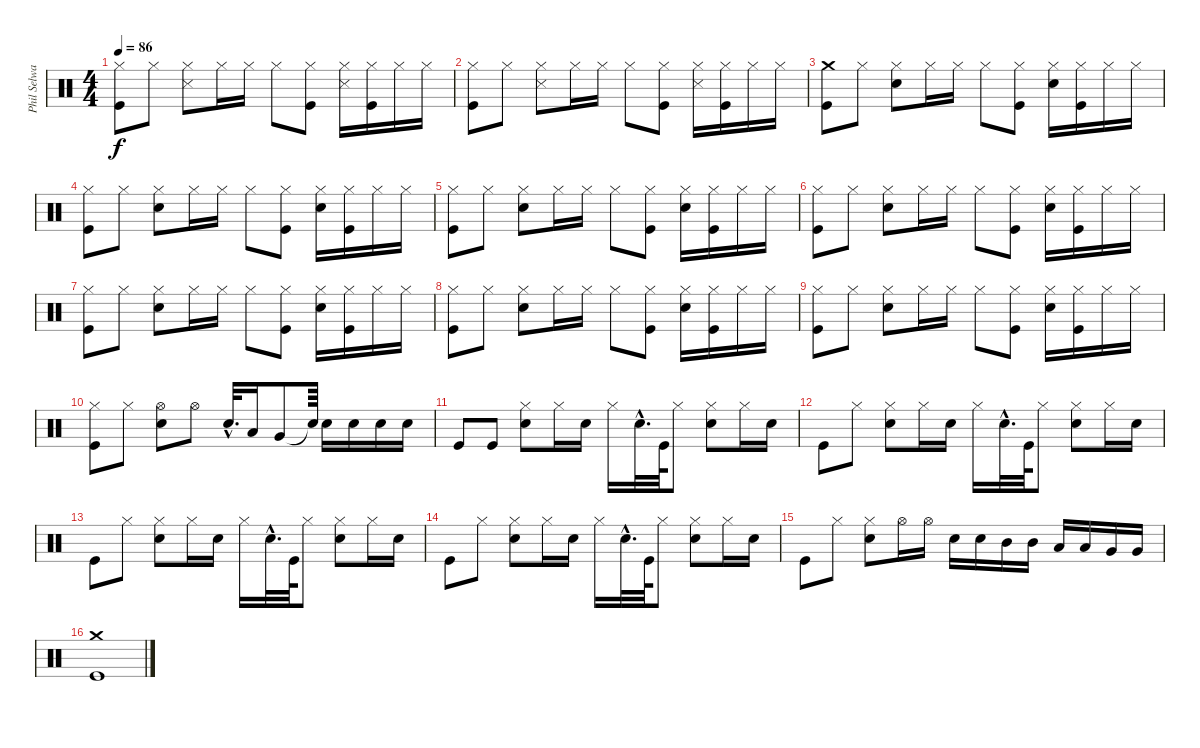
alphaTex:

\track ("Phil Selway" "Phil Selwa") {instrument percussion}
\staff {score}
\articulation defaults
\ts (4 4)
\tempo 86
\clef neutral
\ks c
("Kick (hit)" "Hi-Hat (closed)").8{dy f} "Hi-Hat (closed)".8 ("Hi-Hat (closed)" "Snare (side stick) 3").8 "Hi-Hat (closed)".16 "Hi-Hat (closed)".16 "Hi-Hat (closed)".8 ("Kick (hit)" "Hi-Hat (closed)").8 ("Hi-Hat (closed)" "Snare (side stick) 3").16 ("Kick (hit)" "Hi-Hat (closed)").16 "Hi-Hat (closed)".16 "Hi-Hat (closed)".16 |
("Kick (hit)" "Hi-Hat (closed)").8 "Hi-Hat (closed)".8 ("Hi-Hat (closed)" "Snare (side stick) 3").8 "Hi-Hat (closed)".16 "Hi-Hat (closed)".16 "Hi-Hat (closed)".8 ("Kick (hit)" "Hi-Hat (closed)").8 ("Hi-Hat (closed)" "Snare (side stick) 3").16 ("Kick (hit)" "Hi-Hat (closed)").16 "Hi-Hat (closed)".16 "Hi-Hat (closed)".16 |
("Kick (hit)" "Crash medium (hit)").8 "Hi-Hat (closed)".8 ("Hi-Hat (closed)" "Electric Snare (hit)").8 "Hi-Hat (closed)".16 "Hi-Hat (closed)".16 "Hi-Hat (closed)".8 ("Kick (hit)" "Hi-Hat (closed)").8 ("Hi-Hat (closed)" "Electric Snare (hit)").16 ("Kick (hit)" "Hi-Hat (closed)").16 "Hi-Hat (closed)".16 "Hi-Hat (closed)".16 |
("Kick (hit)" "Hi-Hat (closed)").8 "Hi-Hat (closed)".8 ("Hi-Hat (closed)" "Electric Snare (hit)").8 "Hi-Hat (closed)".16 "Hi-Hat (closed)".16 "Hi-Hat (closed)".8 ("Kick (hit)" "Hi-Hat (closed)").8 ("Hi-Hat (closed)" "Electric Snare (hit)").16 ("Kick (hit)" "Hi-Hat (closed)").16 "Hi-Hat (closed)".16 "Hi-Hat (closed)".16 |
("Kick (hit)" "Hi-Hat (closed)").8 "Hi-Hat (closed)".8 ("Hi-Hat (closed)" "Electric Snare (hit)").8 "Hi-Hat (closed)".16 "Hi-Hat (closed)".16 "Hi-Hat (closed)".8 ("Kick (hit)" "Hi-Hat (closed)").8 ("Hi-Hat (closed)" "Electric Snare (hit)").16 ("Kick (hit)" "Hi-Hat (closed)").16 "Hi-Hat (closed)".16 "Hi-Hat (closed)".16 |
("Kick (hit)" "Hi-Hat (closed)").8 "Hi-Hat (closed)".8 ("Hi-Hat (closed)" "Electric Snare (hit)").8 "Hi-Hat (closed)".16 "Hi-Hat (closed)".16 "Hi-Hat (closed)".8 ("Kick (hit)" "Hi-Hat (closed)").8 ("Hi-Hat (closed)" "Electric Snare (hit)").16 ("Kick (hit)" "Hi-Hat (closed)").16 "Hi-Hat (closed)".16 "Hi-Hat (closed)".16 |
("Kick (hit)" "Hi-Hat (closed)").8 "Hi-Hat (closed)".8 ("Hi-Hat (closed)" "Electric Snare (hit)").8 "Hi-Hat (closed)".16 "Hi-Hat (closed)".16 "Hi-Hat (closed)".8 ("Kick (hit)" "Hi-Hat (closed)").8 ("Hi-Hat (closed)" "Electric Snare (hit)").16 ("Kick (hit)" "Hi-Hat (closed)").16 "Hi-Hat (closed)".16 "Hi-Hat (closed)".16 |
("Kick (hit)" "Hi-Hat (closed)").8 "Hi-Hat (closed)".8 ("Hi-Hat (closed)" "Electric Snare (hit)").8 "Hi-Hat (closed)".16 "Hi-Hat (closed)".16 "Hi-Hat (closed)".8 ("Kick (hit)" "Hi-Hat (closed)").8 ("Hi-Hat (closed)" "Electric Snare (hit)").16 ("Kick (hit)" "Hi-Hat (closed)").16 "Hi-Hat (closed)".16 "Hi-Hat (closed)".16 |
("Kick (hit)" "Hi-Hat (closed)").8 "Hi-Hat (closed)".8 ("Hi-Hat (closed)" "Electric Snare (hit)").8 "Hi-Hat (closed)".16 "Hi-Hat (closed)".16 "Hi-Hat (closed)".8 ("Kick (hit)" "Hi-Hat (closed)").8 ("Hi-Hat (closed)" "Electric Snare (hit)").16 ("Kick (hit)" "Hi-Hat (closed)").16 "Hi-Hat (closed)".16 "Hi-Hat (closed)".16 |
("Kick (hit)" "Hi-Hat (closed)").8 "Hi-Hat (closed)".8 ("Hi-Hat (open)" "Electric Snare (hit)").8 "Hi-Hat (open)".8 "Electric Snare (hit)"{hac}.32{d} "Low Tom (hit)".16 "Very Low Tom (hit)".8 "Snare (hit)"{t}.64 "Electric Snare (hit)".16 "Electric Snare (hit)".16 "Electric Snare (hit)".16 "Electric Snare (hit)".16 |
"Kick (hit)".8 "Kick (hit)".8 ("Hi-Hat (closed)" "Electric Snare (hit)").8 "Hi-Hat (closed)".16 "Electric Snare (hit)".16 "Hi-Hat (closed)".16 "Electric Snare (hit)"{hac}.32{d} "Kick (hit)".64 "Hi-Hat (closed)".8 ("Hi-Hat (closed)" "Electric Snare (hit)").8 "Hi-Hat (closed)".16 "Electric Snare (hit)".16 |
"Kick (hit)".8 "Hi-Hat (closed)".8 ("Hi-Hat (closed)" "Electric Snare (hit)").8 "Hi-Hat (closed)".16 "Electric Snare (hit)".16 "Hi-Hat (closed)".16 "Electric Snare (hit)"{hac}.32{d} "Kick (hit)".64 "Hi-Hat (closed)".8 ("Hi-Hat (closed)" "Electric Snare (hit)").8 "Hi-Hat (closed)".16 "Electric Snare (hit)".16 |
"Kick (hit)".8 "Hi-Hat (closed)".8 ("Hi-Hat (closed)" "Electric Snare (hit)").8 "Hi-Hat (closed)".16 "Electric Snare (hit)".16 "Hi-Hat (closed)".16 "Electric Snare (hit)"{hac}.32{d} "Kick (hit)".64 "Hi-Hat (closed)".8 ("Hi-Hat (closed)" "Electric Snare (hit)").8 "Hi-Hat (closed)".16 "Electric Snare (hit)".16 |
"Kick (hit)".8 "Hi-Hat (closed)".8 ("Hi-Hat (closed)" "Electric Snare (hit)").8 "Hi-Hat (closed)".16 "Electric Snare (hit)".16 "Hi-Hat (closed)".16 "Electric Snare (hit)"{hac}.32{d} "Kick (hit)".64 "Hi-Hat (closed)".8 ("Hi-Hat (closed)" "Electric Snare (hit)").8 "Hi-Hat (closed)".16 "Electric Snare (hit)".16 |
"Kick (hit)".8 "Hi-Hat (closed)".8 ("Hi-Hat (closed)" "Electric Snare (hit)").8 "Hi-Hat (open)".16 "Hi-Hat (open)".16 "Electric Snare (hit)".16 "Electric Snare (hit)".16 "Mid Tom (hit)".16 "Mid Tom (hit)".16 "Low Tom (hit)".16 "Low Tom (hit)".16 "Very Low Tom (hit)".16 "Very Low Tom (hit)".16 |
("Kick (hit)" "Crash medium (hit)").1
